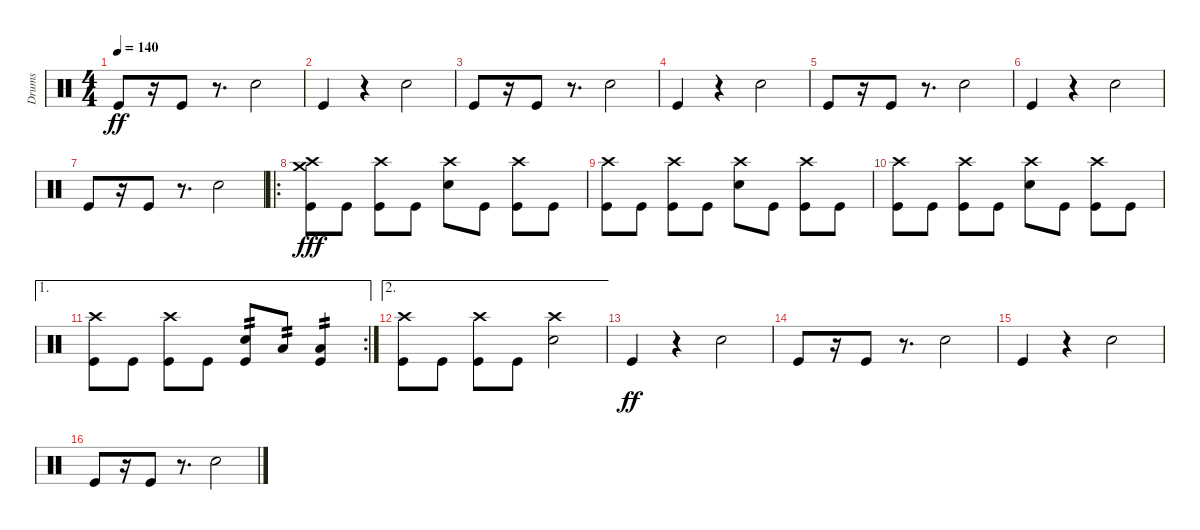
\track ("Drums" "Drums") {instrument percussion}
\staff {score}
\articulation defaults
\ts (4 4)
\tempo 140
\clef neutral
\ks c "Kick (hit)".8{dy ff}
r.16 "Kick (hit)".8 r.8{d} "Electric Snare (hit)".2 |
"Kick (hit)".4 r.4 "Electric Snare (hit)".2 |
"Kick (hit)".8 r.16 "Kick (hit)".8 r.8{d} "Electric Snare (hit)".2 |
"Kick (hit)".4 r.4 "Electric Snare (hit)".2 |
"Kick (hit)".8 r.16 "Kick (hit)".8 r.8{d} "Electric Snare (hit)".2 |
"Kick (hit)".4 r.4 "Electric Snare (hit)".2 |
"Kick (hit)".8 r.16 "Kick (hit)".8 r.8{d} "Electric Snare (hit)".2 |
\ro
("Crash medium (hit)" "Crash high (hit)" "Kick (hit)").8{dy fff} "Kick (hit)".8 ("Crash high (hit)" "Kick (hit)").8 "Kick (hit)".8 ("Crash high (hit)" "Electric Snare (hit)").8 "Kick (hit)".8 ("Crash high (hit)" "Kick (hit)").8 "Kick (hit)".8 |
("Crash high (hit)" "Kick (hit)").8 "Kick (hit)".8 ("Crash high (hit)" "Kick (hit)").8 "Kick (hit)".8 ("Crash high (hit)" "Electric Snare (hit)").8 "Kick (hit)".8 ("Crash high (hit)" "Kick (hit)").8 "Kick (hit)".8 |
("Crash high (hit)" "Kick (hit)").8 "Kick (hit)".8 ("Crash high (hit)" "Kick (hit)").8 "Kick (hit)".8 ("Crash high (hit)" "Electric Snare (hit)").8 "Kick (hit)".8 ("Crash high (hit)" "Kick (hit)").8 "Kick (hit)".8 |
\ae 1
\rc 2
("Crash high (hit)" "Kick (hit)").8 "Kick (hit)".8 ("Crash high (hit)" "Kick (hit)").8 "Kick (hit)".8 ("Electric Snare (hit)" "Kick (hit)").8{tp 2} "Low Floor Tom (hit)".8{tp 2} ("Low Floor Tom (hit)" "Kick (hit)").4{tp 2} |
\ae 2
("Crash high (hit)" "Kick (hit)").8 "Kick (hit)".8 ("Crash high (hit)" "Kick (hit)").8 "Kick (hit)".8 ("Crash high (hit)" "Electric Snare (hit)").2 |
"Kick (hit)".4{dy ff} r.4 "Electric Snare (hit)".2 |
"Kick (hit)".8 r.16 "Kick (hit)".8 r.8{d} "Electric Snare (hit)".2 |
"Kick (hit)".4 r.4 "Electric Snare (hit)".2 |
"Kick (hit)".8 r.16 "Kick (hit)".8 r.8{d} "Electric Snare (hit)".2
